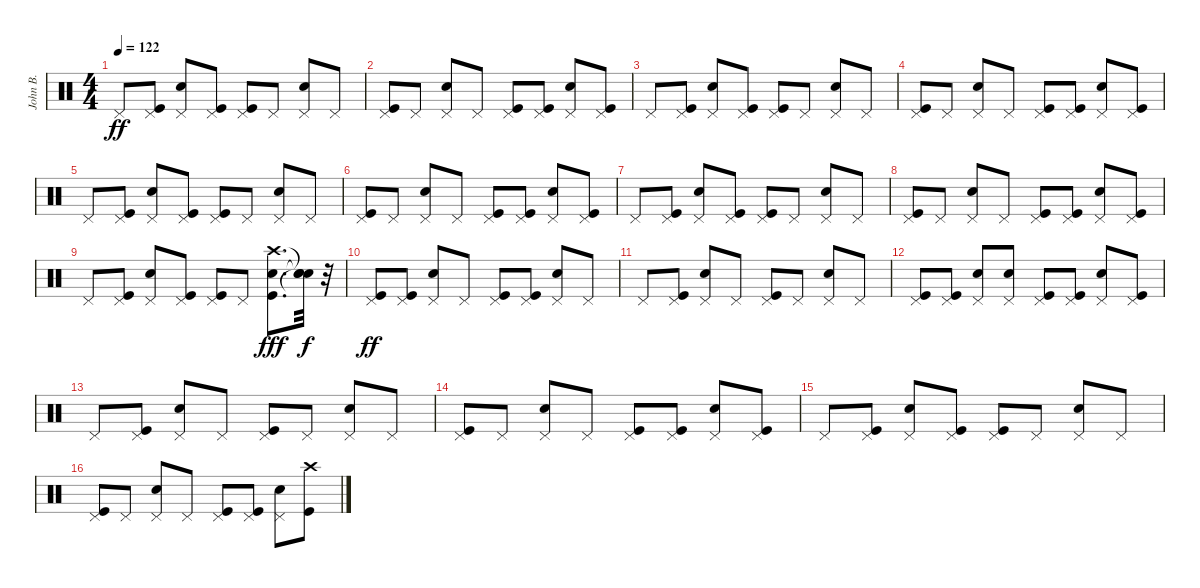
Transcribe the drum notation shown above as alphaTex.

\track ("John B." "John B.") {instrument percussion}
\staff {score}
\articulation defaults
\ts (4 4)
\tempo 122
\clef neutral
\ks c "Pedal Hi-Hat (hit)".8{dy ff}
("Kick (hit)" "Pedal Hi-Hat (hit)").8 ("Snare (hit) 2" "Pedal Hi-Hat (hit)").8 ("Kick (hit)" "Pedal Hi-Hat (hit)").8 ("Kick (hit)" "Pedal Hi-Hat (hit)").8 "Pedal Hi-Hat (hit)".8 ("Snare (hit) 2" "Pedal Hi-Hat (hit)").8 "Pedal Hi-Hat (hit)".8 |
("Kick (hit)" "Pedal Hi-Hat (hit)").8 "Pedal Hi-Hat (hit)".8 ("Snare (hit) 2" "Pedal Hi-Hat (hit)").8 "Pedal Hi-Hat (hit)".8 ("Kick (hit)" "Pedal Hi-Hat (hit)").8 ("Kick (hit)" "Pedal Hi-Hat (hit)").8 ("Snare (hit) 2" "Pedal Hi-Hat (hit)").8 ("Kick (hit)" "Pedal Hi-Hat (hit)").8 |
"Pedal Hi-Hat (hit)".8 ("Kick (hit)" "Pedal Hi-Hat (hit)").8 ("Snare (hit) 2" "Pedal Hi-Hat (hit)").8 ("Kick (hit)" "Pedal Hi-Hat (hit)").8 ("Kick (hit)" "Pedal Hi-Hat (hit)").8 "Pedal Hi-Hat (hit)".8 ("Snare (hit) 2" "Pedal Hi-Hat (hit)").8 "Pedal Hi-Hat (hit)".8 |
("Kick (hit)" "Pedal Hi-Hat (hit)").8 "Pedal Hi-Hat (hit)".8 ("Snare (hit) 2" "Pedal Hi-Hat (hit)").8 "Pedal Hi-Hat (hit)".8 ("Kick (hit)" "Pedal Hi-Hat (hit)").8 ("Kick (hit)" "Pedal Hi-Hat (hit)").8 ("Snare (hit) 2" "Pedal Hi-Hat (hit)").8 ("Kick (hit)" "Pedal Hi-Hat (hit)").8 |
"Pedal Hi-Hat (hit)".8 ("Kick (hit)" "Pedal Hi-Hat (hit)").8 ("Snare (hit) 2" "Pedal Hi-Hat (hit)").8 ("Kick (hit)" "Pedal Hi-Hat (hit)").8 ("Kick (hit)" "Pedal Hi-Hat (hit)").8 "Pedal Hi-Hat (hit)".8 ("Snare (hit) 2" "Pedal Hi-Hat (hit)").8 "Pedal Hi-Hat (hit)".8 |
("Kick (hit)" "Pedal Hi-Hat (hit)").8 "Pedal Hi-Hat (hit)".8 ("Snare (hit) 2" "Pedal Hi-Hat (hit)").8 "Pedal Hi-Hat (hit)".8 ("Kick (hit)" "Pedal Hi-Hat (hit)").8 ("Kick (hit)" "Pedal Hi-Hat (hit)").8 ("Snare (hit) 2" "Pedal Hi-Hat (hit)").8 ("Kick (hit)" "Pedal Hi-Hat (hit)").8 |
"Pedal Hi-Hat (hit)".8 ("Kick (hit)" "Pedal Hi-Hat (hit)").8 ("Snare (hit) 2" "Pedal Hi-Hat (hit)").8 ("Kick (hit)" "Pedal Hi-Hat (hit)").8 ("Kick (hit)" "Pedal Hi-Hat (hit)").8 "Pedal Hi-Hat (hit)".8 ("Snare (hit) 2" "Pedal Hi-Hat (hit)").8 "Pedal Hi-Hat (hit)".8 |
("Kick (hit)" "Pedal Hi-Hat (hit)").8 "Pedal Hi-Hat (hit)".8 ("Snare (hit) 2" "Pedal Hi-Hat (hit)").8 "Pedal Hi-Hat (hit)".8 ("Kick (hit)" "Pedal Hi-Hat (hit)").8 ("Kick (hit)" "Pedal Hi-Hat (hit)").8 ("Snare (hit) 2" "Pedal Hi-Hat (hit)").8 ("Kick (hit)" "Pedal Hi-Hat (hit)").8 |
"Pedal Hi-Hat (hit)".8 ("Kick (hit)" "Pedal Hi-Hat (hit)").8 ("Snare (hit) 2" "Pedal Hi-Hat (hit)").8 ("Kick (hit)" "Pedal Hi-Hat (hit)").8 ("Kick (hit)" "Pedal Hi-Hat (hit)").8 "Pedal Hi-Hat (hit)".8 ("Kick (hit)" "Snare (hit) 2" "Crash high (hit)").8{d dy fff} ("Snare (hit)"{t} "Snare (hit)"{t} "Snare (hit)"{t}).32{dy f} r.32 |
("Kick (hit)" "Pedal Hi-Hat (hit)").8{dy ff} ("Kick (hit)" "Pedal Hi-Hat (hit)").8 ("Snare (hit) 2" "Pedal Hi-Hat (hit)").8 "Pedal Hi-Hat (hit)".8 ("Kick (hit)" "Pedal Hi-Hat (hit)").8 ("Kick (hit)" "Pedal Hi-Hat (hit)").8 ("Snare (hit) 2" "Pedal Hi-Hat (hit)").8 "Pedal Hi-Hat (hit)".8 |
"Pedal Hi-Hat (hit)".8 ("Kick (hit)" "Pedal Hi-Hat (hit)").8 ("Snare (hit) 2" "Pedal Hi-Hat (hit)").8 "Pedal Hi-Hat (hit)".8 ("Kick (hit)" "Pedal Hi-Hat (hit)").8 "Pedal Hi-Hat (hit)".8 ("Snare (hit) 2" "Pedal Hi-Hat (hit)").8 "Pedal Hi-Hat (hit)".8 |
("Kick (hit)" "Pedal Hi-Hat (hit)").8 ("Kick (hit)" "Pedal Hi-Hat (hit)").8 ("Snare (hit) 2" "Pedal Hi-Hat (hit)").8 ("Snare (hit) 2" "Pedal Hi-Hat (hit)").8 ("Kick (hit)" "Pedal Hi-Hat (hit)").8 ("Kick (hit)" "Pedal Hi-Hat (hit)").8 ("Snare (hit) 2" "Pedal Hi-Hat (hit)").8 ("Kick (hit)" "Pedal Hi-Hat (hit)").8 |
"Pedal Hi-Hat (hit)".8 ("Kick (hit)" "Pedal Hi-Hat (hit)").8 ("Snare (hit) 2" "Pedal Hi-Hat (hit)").8 "Pedal Hi-Hat (hit)".8 ("Kick (hit)" "Pedal Hi-Hat (hit)").8 "Pedal Hi-Hat (hit)".8 ("Snare (hit) 2" "Pedal Hi-Hat (hit)").8 "Pedal Hi-Hat (hit)".8 |
("Kick (hit)" "Pedal Hi-Hat (hit)").8 "Pedal Hi-Hat (hit)".8 ("Snare (hit) 2" "Pedal Hi-Hat (hit)").8 "Pedal Hi-Hat (hit)".8 ("Kick (hit)" "Pedal Hi-Hat (hit)").8 ("Kick (hit)" "Pedal Hi-Hat (hit)").8 ("Snare (hit) 2" "Pedal Hi-Hat (hit)").8 ("Kick (hit)" "Pedal Hi-Hat (hit)").8 |
"Pedal Hi-Hat (hit)".8 ("Kick (hit)" "Pedal Hi-Hat (hit)").8 ("Snare (hit) 2" "Pedal Hi-Hat (hit)").8 ("Kick (hit)" "Pedal Hi-Hat (hit)").8 ("Kick (hit)" "Pedal Hi-Hat (hit)").8 "Pedal Hi-Hat (hit)".8 ("Snare (hit) 2" "Pedal Hi-Hat (hit)").8 "Pedal Hi-Hat (hit)".8 |
("Kick (hit)" "Pedal Hi-Hat (hit)").8 "Pedal Hi-Hat (hit)".8 ("Snare (hit) 2" "Pedal Hi-Hat (hit)").8 "Pedal Hi-Hat (hit)".8 ("Kick (hit)" "Pedal Hi-Hat (hit)").8 ("Kick (hit)" "Pedal Hi-Hat (hit)").8 ("Snare (hit) 2" "Pedal Hi-Hat (hit)").8 ("Kick (hit)" "Crash high (hit)").8
